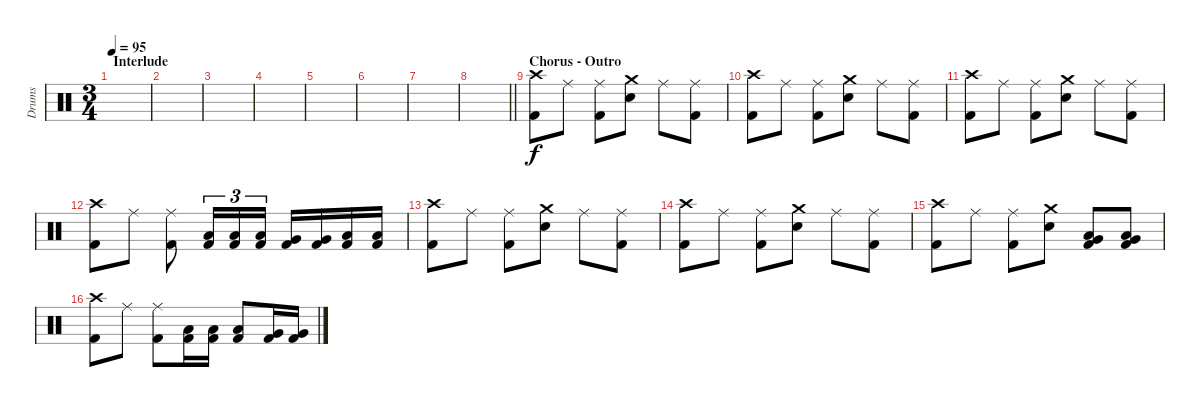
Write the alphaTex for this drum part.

\track ("Drums" "Drums") {instrument percussion}
\staff {score}
\articulation defaults
\ts (3 4)
\section ("" "Interlude")
\tempo 95
\clef neutral
\ks c
|
|
|
|
|
|
|
\barLineRight lightlight
|
\section ("" "Chorus - Outro")
("Crash high (hit)" "Kick (hit) 2").8 "Ride (middle)".8 ("Ride (middle)" "Kick (hit) 2").8 ("Crash medium (hit)" "Electric Snare (hit)").8 "Ride (middle)".8 ("Ride (middle)" "Kick (hit) 2").8 |
("Crash high (hit)" "Kick (hit) 2").8 "Ride (middle)".8 ("Ride (middle)" "Kick (hit) 2").8 ("Crash medium (hit)" "Electric Snare (hit)").8 "Ride (middle)".8 ("Ride (middle)" "Kick (hit) 2").8 |
("Crash high (hit)" "Kick (hit) 2").8 "Ride (middle)".8 ("Ride (middle)" "Kick (hit) 2").8 ("Crash medium (hit)" "Electric Snare (hit)").8 "Ride (middle)".8 ("Ride (middle)" "Kick (hit) 2").8 |
("Crash high (hit)" "Kick (hit) 2").8 "Ride (middle)".8 ("Ride (middle)" "Kick (hit) 2").8 ("Low Tom (hit)" "Kick (hit) 2").16{tu (3 2)} ("Low Tom (hit)" "Kick (hit) 2").16{tu (3 2)} ("Low Tom (hit)" "Kick (hit) 2").16{tu (3 2)} ("Very Low Tom (hit)" "Kick (hit) 2").16 ("Very Low Tom (hit)" "Kick (hit) 2").16 ("Low Floor Tom (hit)" "Kick (hit) 2").16 ("Low Floor Tom (hit)" "Kick (hit) 2").16 |
("Crash high (hit)" "Kick (hit) 2").8 "Ride (middle)".8 ("Ride (middle)" "Kick (hit) 2").8 ("Crash medium (hit)" "Electric Snare (hit)").8 "Ride (middle)".8 ("Ride (middle)" "Kick (hit) 2").8 |
("Crash high (hit)" "Kick (hit) 2").8 "Ride (middle)".8 ("Ride (middle)" "Kick (hit) 2").8 ("Crash medium (hit)" "Electric Snare (hit)").8 "Ride (middle)".8 ("Ride (middle)" "Kick (hit) 2").8 |
("Crash high (hit)" "Kick (hit) 2").8 "Ride (middle)".8 ("Ride (middle)" "Kick (hit) 2").8 ("Crash medium (hit)" "Electric Snare (hit)").8 ("Low Tom (hit)" "Very Low Tom (hit)" "Kick (hit) 2").8 ("Low Tom (hit)" "Very Low Tom (hit)" "Kick (hit) 2").8 |
("Crash high (hit)" "Kick (hit) 2").8 "Ride (middle)".8 ("Ride (middle)" "Kick (hit) 2").8 ("Low Tom (hit)" "Kick (hit) 2").16 ("Low Tom (hit)" "Kick (hit) 2").16 ("Low Tom (hit)" "Kick (hit) 2").8 ("Very Low Tom (hit)" "Kick (hit) 2").16 ("Very Low Tom (hit)" "Kick (hit) 2").16
